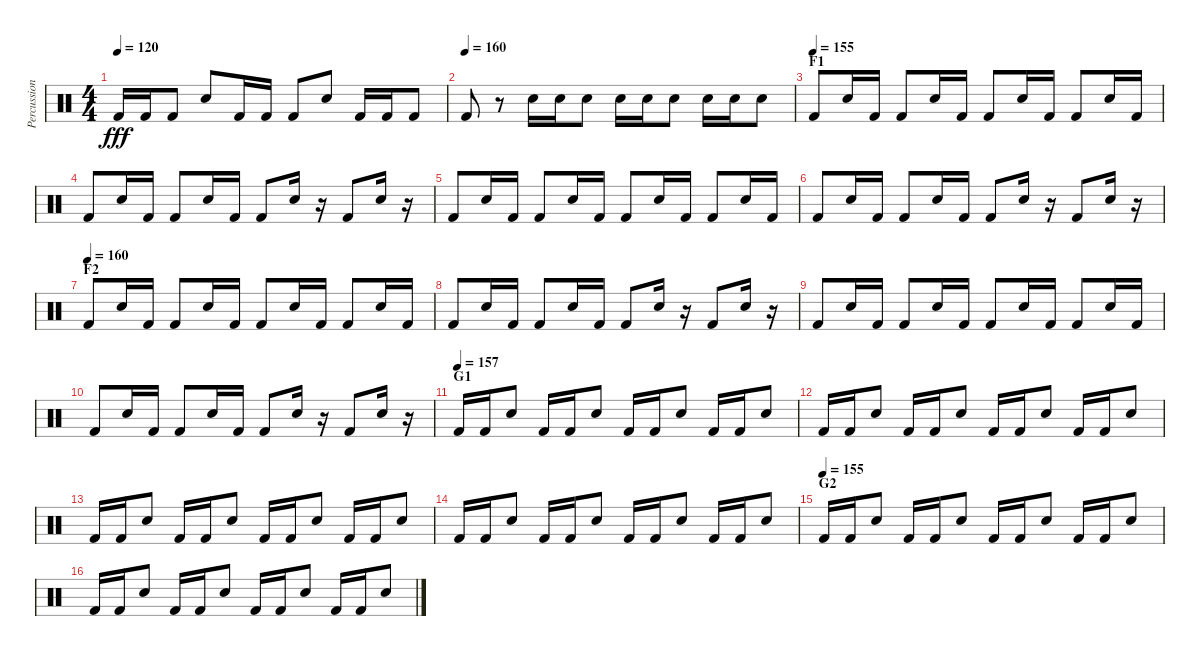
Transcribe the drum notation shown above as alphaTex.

\track ("Percussion" "Percussion") {instrument percussion}
\staff {score}
\articulation defaults
\ts (4 4)
\tempo 120
\clef neutral
\ks c "Kick (hit) 2".16{dy fff} "Kick (hit) 2".16 "Kick (hit) 2".8 "Electric Snare (hit)".8 "Kick (hit) 2".16 "Kick (hit) 2".16 "Kick (hit) 2".8 "Electric Snare (hit)".8 "Kick (hit) 2".16 "Kick (hit) 2".16 "Kick (hit) 2".8
|
\tempo (160)
"Kick (hit) 2".8 r.8 "Electric Snare (hit)".16 "Electric Snare (hit)".16 "Electric Snare (hit)".8 "Electric Snare (hit)".16 "Electric Snare (hit)".16 "Electric Snare (hit)".8 "Electric Snare (hit)".16 "Electric Snare (hit)".16 "Electric Snare (hit)".8 |
\section ("" "F1")
\tempo (155)
"Kick (hit) 2".8 "Electric Snare (hit)".16 "Kick (hit) 2".16 "Kick (hit) 2".8 "Electric Snare (hit)".16 "Kick (hit) 2".16 "Kick (hit) 2".8 "Electric Snare (hit)".16 "Kick (hit) 2".16 "Kick (hit) 2".8 "Electric Snare (hit)".16 "Kick (hit) 2".16 |
"Kick (hit) 2".8 "Electric Snare (hit)".16 "Kick (hit) 2".16 "Kick (hit) 2".8 "Electric Snare (hit)".16 "Kick (hit) 2".16 "Kick (hit) 2".8 "Electric Snare (hit)".16 r.16 "Kick (hit) 2".8 "Electric Snare (hit)".16 r.16 |
"Kick (hit) 2".8 "Electric Snare (hit)".16 "Kick (hit) 2".16 "Kick (hit) 2".8 "Electric Snare (hit)".16 "Kick (hit) 2".16 "Kick (hit) 2".8 "Electric Snare (hit)".16 "Kick (hit) 2".16 "Kick (hit) 2".8 "Electric Snare (hit)".16 "Kick (hit) 2".16 |
"Kick (hit) 2".8 "Electric Snare (hit)".16 "Kick (hit) 2".16 "Kick (hit) 2".8 "Electric Snare (hit)".16 "Kick (hit) 2".16 "Kick (hit) 2".8 "Electric Snare (hit)".16 r.16 "Kick (hit) 2".8 "Electric Snare (hit)".16 r.16 |
\section ("" "F2")
\tempo (160)
"Kick (hit) 2".8 "Electric Snare (hit)".16 "Kick (hit) 2".16 "Kick (hit) 2".8 "Electric Snare (hit)".16 "Kick (hit) 2".16 "Kick (hit) 2".8 "Electric Snare (hit)".16 "Kick (hit) 2".16 "Kick (hit) 2".8 "Electric Snare (hit)".16 "Kick (hit) 2".16 |
"Kick (hit) 2".8 "Electric Snare (hit)".16 "Kick (hit) 2".16 "Kick (hit) 2".8 "Electric Snare (hit)".16 "Kick (hit) 2".16 "Kick (hit) 2".8 "Electric Snare (hit)".16 r.16 "Kick (hit) 2".8 "Electric Snare (hit)".16 r.16 |
"Kick (hit) 2".8 "Electric Snare (hit)".16 "Kick (hit) 2".16 "Kick (hit) 2".8 "Electric Snare (hit)".16 "Kick (hit) 2".16 "Kick (hit) 2".8 "Electric Snare (hit)".16 "Kick (hit) 2".16 "Kick (hit) 2".8 "Electric Snare (hit)".16 "Kick (hit) 2".16 |
"Kick (hit) 2".8 "Electric Snare (hit)".16 "Kick (hit) 2".16 "Kick (hit) 2".8 "Electric Snare (hit)".16 "Kick (hit) 2".16 "Kick (hit) 2".8 "Electric Snare (hit)".16 r.16 "Kick (hit) 2".8 "Electric Snare (hit)".16 r.16 |
\section ("" "G1")
\tempo (157)
"Kick (hit) 2".16 "Kick (hit) 2".16 "Electric Snare (hit)".8 "Kick (hit) 2".16 "Kick (hit) 2".16 "Electric Snare (hit)".8 "Kick (hit) 2".16 "Kick (hit) 2".16 "Electric Snare (hit)".8 "Kick (hit) 2".16 "Kick (hit) 2".16 "Electric Snare (hit)".8 |
"Kick (hit) 2".16 "Kick (hit) 2".16 "Electric Snare (hit)".8 "Kick (hit) 2".16 "Kick (hit) 2".16 "Electric Snare (hit)".8 "Kick (hit) 2".16 "Kick (hit) 2".16 "Electric Snare (hit)".8 "Kick (hit) 2".16 "Kick (hit) 2".16 "Electric Snare (hit)".8 |
"Kick (hit) 2".16 "Kick (hit) 2".16 "Electric Snare (hit)".8 "Kick (hit) 2".16 "Kick (hit) 2".16 "Electric Snare (hit)".8 "Kick (hit) 2".16 "Kick (hit) 2".16 "Electric Snare (hit)".8 "Kick (hit) 2".16 "Kick (hit) 2".16 "Electric Snare (hit)".8 |
"Kick (hit) 2".16 "Kick (hit) 2".16 "Electric Snare (hit)".8 "Kick (hit) 2".16 "Kick (hit) 2".16 "Electric Snare (hit)".8 "Kick (hit) 2".16 "Kick (hit) 2".16 "Electric Snare (hit)".8 "Kick (hit) 2".16 "Kick (hit) 2".16 "Electric Snare (hit)".8 |
\section ("" "G2")
\tempo (155)
"Kick (hit) 2".16 "Kick (hit) 2".16 "Electric Snare (hit)".8 "Kick (hit) 2".16 "Kick (hit) 2".16 "Electric Snare (hit)".8 "Kick (hit) 2".16 "Kick (hit) 2".16 "Electric Snare (hit)".8 "Kick (hit) 2".16 "Kick (hit) 2".16 "Electric Snare (hit)".8 |
"Kick (hit) 2".16 "Kick (hit) 2".16 "Electric Snare (hit)".8 "Kick (hit) 2".16 "Kick (hit) 2".16 "Electric Snare (hit)".8 "Kick (hit) 2".16 "Kick (hit) 2".16 "Electric Snare (hit)".8 "Kick (hit) 2".16 "Kick (hit) 2".16 "Electric Snare (hit)".8
